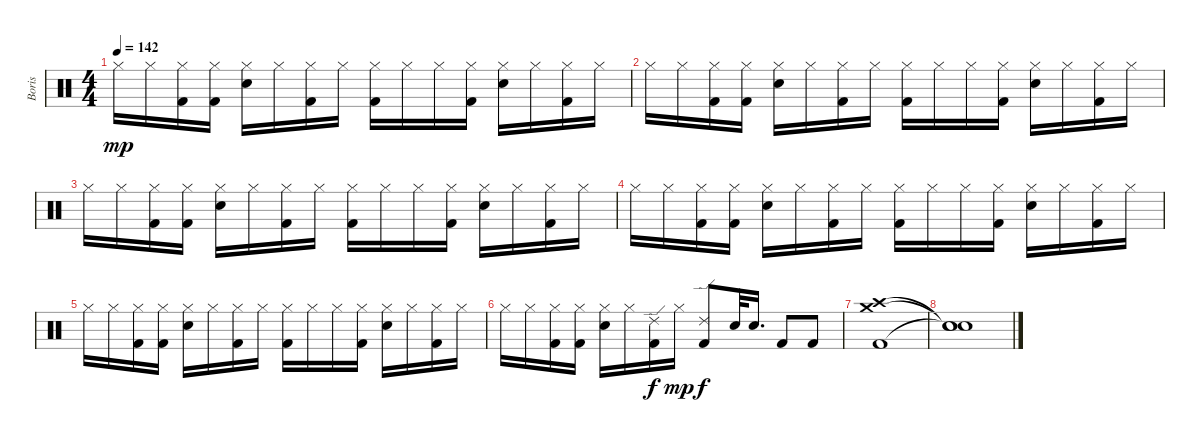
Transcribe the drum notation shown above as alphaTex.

\track ("Boris" "Boris") {instrument percussion}
\staff {score}
\articulation defaults
\ts (4 4)
\tempo 142
\clef neutral
\ks c "Hi-Hat (closed)".16{dy mp} "Hi-Hat (closed)".16
("Kick (hit) 2" "Hi-Hat (closed)").16 ("Kick (hit) 2" "Hi-Hat (closed)").16 ("Snare (hit) 2" "Hi-Hat (closed)").16 "Hi-Hat (closed)".16 ("Kick (hit) 2" "Hi-Hat (closed)").16 "Hi-Hat (closed)".16 ("Kick (hit) 2" "Hi-Hat (closed)").16 "Hi-Hat (closed)".16 "Hi-Hat (closed)".16 ("Kick (hit) 2" "Hi-Hat (closed)").16 ("Snare (hit) 2" "Hi-Hat (closed)").16 "Hi-Hat (closed)".16 ("Kick (hit) 2" "Hi-Hat (closed)").16 "Hi-Hat (closed)".16 |
"Hi-Hat (closed)".16 "Hi-Hat (closed)".16 ("Kick (hit) 2" "Hi-Hat (closed)").16 ("Kick (hit) 2" "Hi-Hat (closed)").16 ("Snare (hit) 2" "Hi-Hat (closed)").16 "Hi-Hat (closed)".16 ("Kick (hit) 2" "Hi-Hat (closed)").16 "Hi-Hat (closed)".16 ("Kick (hit) 2" "Hi-Hat (closed)").16 "Hi-Hat (closed)".16 "Hi-Hat (closed)".16 ("Kick (hit) 2" "Hi-Hat (closed)").16 ("Snare (hit) 2" "Hi-Hat (closed)").16 "Hi-Hat (closed)".16 ("Kick (hit) 2" "Hi-Hat (closed)").16 "Hi-Hat (closed)".16 |
"Hi-Hat (closed)".16 "Hi-Hat (closed)".16 ("Kick (hit) 2" "Hi-Hat (closed)").16 ("Kick (hit) 2" "Hi-Hat (closed)").16 ("Snare (hit) 2" "Hi-Hat (closed)").16 "Hi-Hat (closed)".16 ("Kick (hit) 2" "Hi-Hat (closed)").16 "Hi-Hat (closed)".16 ("Kick (hit) 2" "Hi-Hat (closed)").16 "Hi-Hat (closed)".16 "Hi-Hat (closed)".16 ("Kick (hit) 2" "Hi-Hat (closed)").16 ("Snare (hit) 2" "Hi-Hat (closed)").16 "Hi-Hat (closed)".16 ("Kick (hit) 2" "Hi-Hat (closed)").16 "Hi-Hat (closed)".16 |
"Hi-Hat (closed)".16 "Hi-Hat (closed)".16 ("Kick (hit) 2" "Hi-Hat (closed)").16 ("Kick (hit) 2" "Hi-Hat (closed)").16 ("Snare (hit) 2" "Hi-Hat (closed)").16 "Hi-Hat (closed)".16 ("Kick (hit) 2" "Hi-Hat (closed)").16 "Hi-Hat (closed)".16 ("Kick (hit) 2" "Hi-Hat (closed)").16 "Hi-Hat (closed)".16 "Hi-Hat (closed)".16 ("Kick (hit) 2" "Hi-Hat (closed)").16 ("Snare (hit) 2" "Hi-Hat (closed)").16 "Hi-Hat (closed)".16 ("Kick (hit) 2" "Hi-Hat (closed)").16 "Hi-Hat (closed)".16 |
"Hi-Hat (closed)".16 "Hi-Hat (closed)".16 ("Kick (hit) 2" "Hi-Hat (closed)").16 ("Kick (hit) 2" "Hi-Hat (closed)").16 ("Snare (hit) 2" "Hi-Hat (closed)").16 "Hi-Hat (closed)".16 ("Kick (hit) 2" "Hi-Hat (closed)").16 "Hi-Hat (closed)".16 ("Kick (hit) 2" "Hi-Hat (closed)").16 "Hi-Hat (closed)".16 "Hi-Hat (closed)".16 ("Kick (hit) 2" "Hi-Hat (closed)").16 ("Snare (hit) 2" "Hi-Hat (closed)").16 "Hi-Hat (closed)".16 ("Kick (hit) 2" "Hi-Hat (closed)").16 "Hi-Hat (closed)".16 |
"Hi-Hat (closed)".16 "Hi-Hat (closed)".16 ("Kick (hit) 2" "Hi-Hat (closed)").16 ("Kick (hit) 2" "Hi-Hat (closed)").16 ("Snare (hit) 2" "Hi-Hat (closed)").16 "Hi-Hat (closed)".16 ("Kick (hit) 2" "Ride (edge) 2").16{dy f} "Hi-Hat (closed)".16{dy mp} ("Kick (hit) 2" "Ride (edge) 2").8{dy f} "Snare (hit) 2".32 "Snare (hit) 2".16{d} "Kick (hit) 2".8 "Kick (hit) 2".8 |
("Kick (hit) 2" "Crash high (hit)" "Crash medium (hit)").1 |
("Snare (hit)"{t} "Snare (hit)"{t} "Snare (hit)"{t}).1
